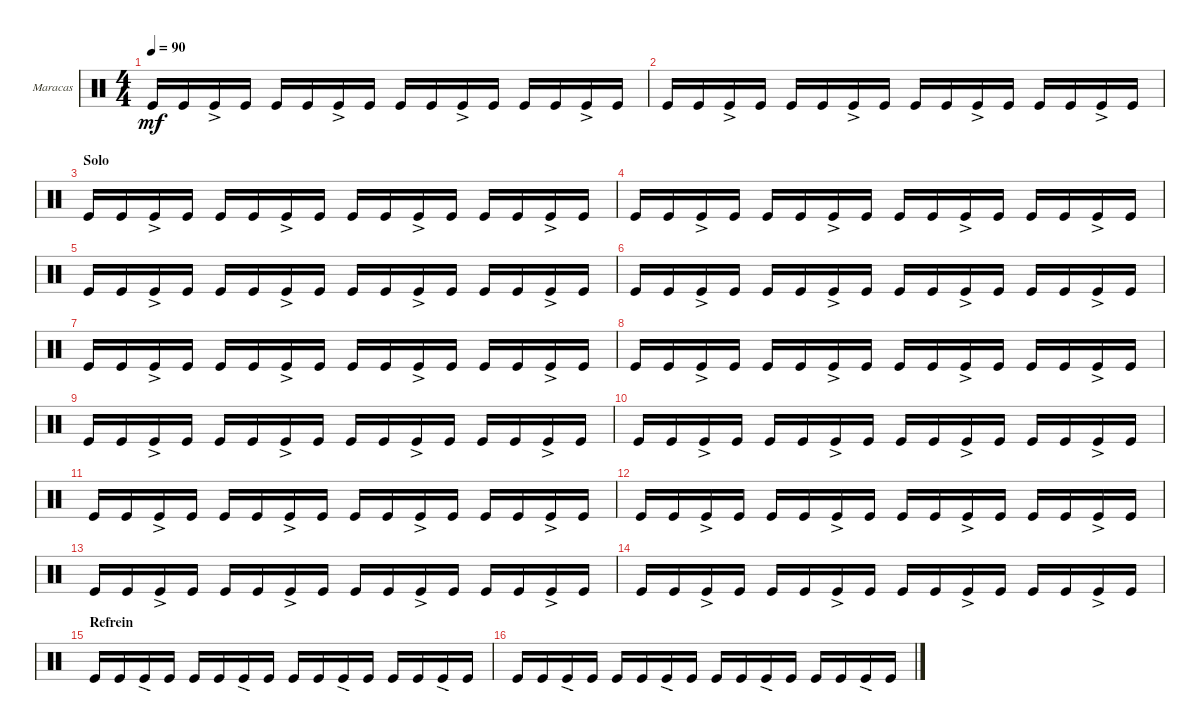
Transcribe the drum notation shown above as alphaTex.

\defaultSystemsLayout 4
\bracketExtendMode groupsimilarinstruments
\firstSystemTrackNameOrientation horizontal
\otherSystemsTrackNameOrientation horizontal
\track ("Maracas" "Maracas") {instrument percussion}
\staff {score}
\articulation defaults
\ts (4 4)
\tempo 90
\clef neutral
\scale
0.333333
\ks c "Kick (hit)".16{dy mf} "Kick (hit)".16 "Kick (hit)"{ac}.16 "Kick (hit)".16 "Kick (hit)".16 "Kick (hit)".16 "Kick (hit)"{ac}.16 "Kick (hit)".16 "Kick (hit)".16 "Kick (hit)".16 "Kick (hit)"{ac}.16 "Kick (hit)".16 "Kick (hit)".16 "Kick (hit)".16 "Kick (hit)"{ac}.16 "Kick (hit)".16
|
\scale
0.333333 "Kick (hit)".16 "Kick (hit)".16 "Kick (hit)"{ac}.16 "Kick (hit)".16 "Kick (hit)".16 "Kick (hit)".16 "Kick (hit)"{ac}.16 "Kick (hit)".16 "Kick (hit)".16 "Kick (hit)".16 "Kick (hit)"{ac}.16 "Kick (hit)".16 "Kick (hit)".16 "Kick (hit)".16 "Kick (hit)"{ac}.16 "Kick (hit)".16 |
\section ("" "Solo")
\scale
0.333333 "Kick (hit)".16 "Kick (hit)".16 "Kick (hit)"{ac}.16 "Kick (hit)".16 "Kick (hit)".16 "Kick (hit)".16 "Kick (hit)"{ac}.16 "Kick (hit)".16 "Kick (hit)".16 "Kick (hit)".16 "Kick (hit)"{ac}.16 "Kick (hit)".16 "Kick (hit)".16 "Kick (hit)".16 "Kick (hit)"{ac}.16 "Kick (hit)".16 |
\scale
0.333333 "Kick (hit)".16 "Kick (hit)".16 "Kick (hit)"{ac}.16 "Kick (hit)".16 "Kick (hit)".16 "Kick (hit)".16 "Kick (hit)"{ac}.16 "Kick (hit)".16 "Kick (hit)".16 "Kick (hit)".16 "Kick (hit)"{ac}.16 "Kick (hit)".16 "Kick (hit)".16 "Kick (hit)".16 "Kick (hit)"{ac}.16 "Kick (hit)".16 |
\scale
0.333333 "Kick (hit)".16 "Kick (hit)".16 "Kick (hit)"{ac}.16 "Kick (hit)".16 "Kick (hit)".16 "Kick (hit)".16 "Kick (hit)"{ac}.16 "Kick (hit)".16 "Kick (hit)".16 "Kick (hit)".16 "Kick (hit)"{ac}.16 "Kick (hit)".16 "Kick (hit)".16 "Kick (hit)".16 "Kick (hit)"{ac}.16 "Kick (hit)".16 |
\scale
0.333333 "Kick (hit)".16 "Kick (hit)".16 "Kick (hit)"{ac}.16 "Kick (hit)".16 "Kick (hit)".16 "Kick (hit)".16 "Kick (hit)"{ac}.16 "Kick (hit)".16 "Kick (hit)".16 "Kick (hit)".16 "Kick (hit)"{ac}.16 "Kick (hit)".16 "Kick (hit)".16 "Kick (hit)".16 "Kick (hit)"{ac}.16 "Kick (hit)".16 |
\scale
0.333333 "Kick (hit)".16 "Kick (hit)".16 "Kick (hit)"{ac}.16 "Kick (hit)".16 "Kick (hit)".16 "Kick (hit)".16 "Kick (hit)"{ac}.16 "Kick (hit)".16 "Kick (hit)".16 "Kick (hit)".16 "Kick (hit)"{ac}.16 "Kick (hit)".16 "Kick (hit)".16 "Kick (hit)".16 "Kick (hit)"{ac}.16 "Kick (hit)".16 |
\scale
0.333333 "Kick (hit)".16 "Kick (hit)".16 "Kick (hit)"{ac}.16 "Kick (hit)".16 "Kick (hit)".16 "Kick (hit)".16 "Kick (hit)"{ac}.16 "Kick (hit)".16 "Kick (hit)".16 "Kick (hit)".16 "Kick (hit)"{ac}.16 "Kick (hit)".16 "Kick (hit)".16 "Kick (hit)".16 "Kick (hit)"{ac}.16 "Kick (hit)".16 |
\scale
0.333333 "Kick (hit)".16 "Kick (hit)".16 "Kick (hit)"{ac}.16 "Kick (hit)".16 "Kick (hit)".16 "Kick (hit)".16 "Kick (hit)"{ac}.16 "Kick (hit)".16 "Kick (hit)".16 "Kick (hit)".16 "Kick (hit)"{ac}.16 "Kick (hit)".16 "Kick (hit)".16 "Kick (hit)".16 "Kick (hit)"{ac}.16 "Kick (hit)".16 |
\scale
0.333333 "Kick (hit)".16 "Kick (hit)".16 "Kick (hit)"{ac}.16 "Kick (hit)".16 "Kick (hit)".16 "Kick (hit)".16 "Kick (hit)"{ac}.16 "Kick (hit)".16 "Kick (hit)".16 "Kick (hit)".16 "Kick (hit)"{ac}.16 "Kick (hit)".16 "Kick (hit)".16 "Kick (hit)".16 "Kick (hit)"{ac}.16 "Kick (hit)".16 |
\scale
0.333333 "Kick (hit)".16 "Kick (hit)".16 "Kick (hit)"{ac}.16 "Kick (hit)".16 "Kick (hit)".16 "Kick (hit)".16 "Kick (hit)"{ac}.16 "Kick (hit)".16 "Kick (hit)".16 "Kick (hit)".16 "Kick (hit)"{ac}.16 "Kick (hit)".16 "Kick (hit)".16 "Kick (hit)".16 "Kick (hit)"{ac}.16 "Kick (hit)".16 |
\scale
0.333333 "Kick (hit)".16 "Kick (hit)".16 "Kick (hit)"{ac}.16 "Kick (hit)".16 "Kick (hit)".16 "Kick (hit)".16 "Kick (hit)"{ac}.16 "Kick (hit)".16 "Kick (hit)".16 "Kick (hit)".16 "Kick (hit)"{ac}.16 "Kick (hit)".16 "Kick (hit)".16 "Kick (hit)".16 "Kick (hit)"{ac}.16 "Kick (hit)".16 |
\scale
0.333333 "Kick (hit)".16 "Kick (hit)".16 "Kick (hit)"{ac}.16 "Kick (hit)".16 "Kick (hit)".16 "Kick (hit)".16 "Kick (hit)"{ac}.16 "Kick (hit)".16 "Kick (hit)".16 "Kick (hit)".16 "Kick (hit)"{ac}.16 "Kick (hit)".16 "Kick (hit)".16 "Kick (hit)".16 "Kick (hit)"{ac}.16 "Kick (hit)".16 |
\scale
0.333333 "Kick (hit)".16 "Kick (hit)".16 "Kick (hit)"{ac}.16 "Kick (hit)".16 "Kick (hit)".16 "Kick (hit)".16 "Kick (hit)"{ac}.16 "Kick (hit)".16 "Kick (hit)".16 "Kick (hit)".16 "Kick (hit)"{ac}.16 "Kick (hit)".16 "Kick (hit)".16 "Kick (hit)".16 "Kick (hit)"{ac}.16 "Kick (hit)".16 |
\section ("" "Refrein")
\scale
0.333333 "Kick (hit)".16 "Kick (hit)".16 "Kick (hit)"{ac}.16 "Kick (hit)".16 "Kick (hit)".16 "Kick (hit)".16 "Kick (hit)"{ac}.16 "Kick (hit)".16 "Kick (hit)".16 "Kick (hit)".16 "Kick (hit)"{ac}.16 "Kick (hit)".16 "Kick (hit)".16 "Kick (hit)".16 "Kick (hit)"{ac}.16 "Kick (hit)".16 |
\scale
0.333333 "Kick (hit)".16 "Kick (hit)".16 "Kick (hit)"{ac}.16 "Kick (hit)".16 "Kick (hit)".16 "Kick (hit)".16 "Kick (hit)"{ac}.16 "Kick (hit)".16 "Kick (hit)".16 "Kick (hit)".16 "Kick (hit)"{ac}.16 "Kick (hit)".16 "Kick (hit)".16 "Kick (hit)".16 "Kick (hit)"{ac}.16 "Kick (hit)".16
